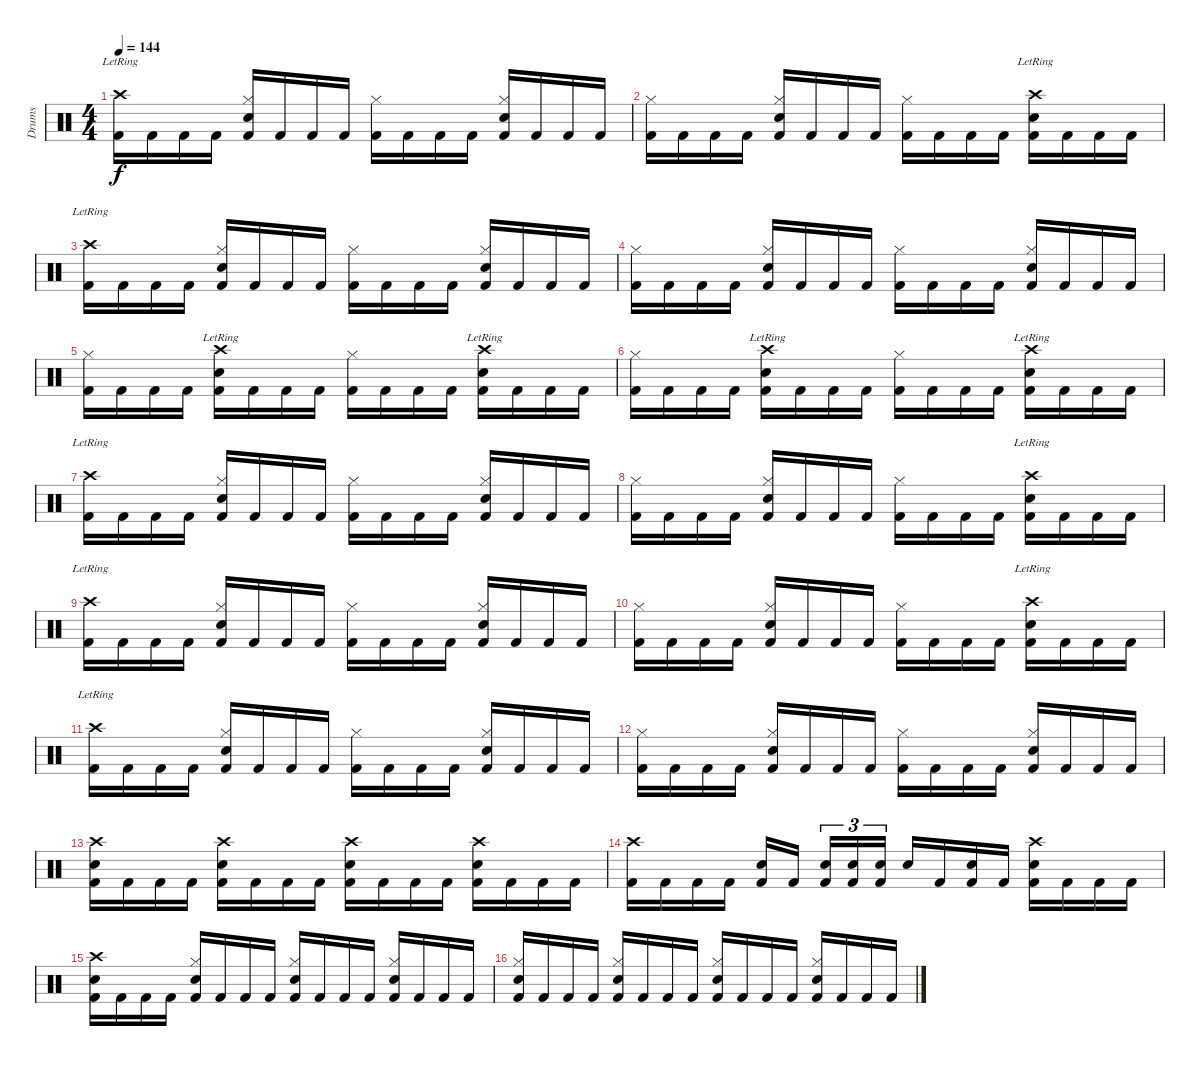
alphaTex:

\track ("Drums" "Drums") {instrument percussion}
\staff {score}
\articulation defaults
\ts (4 4)
\tempo 144
\clef neutral
\ks c
("Crash high (hit)"{lr} "Kick (hit) 2").16{dy f} "Kick (hit) 2".16 "Kick (hit) 2".16 "Kick (hit) 2".16 ("Hi-Hat (closed)" "Snare (hit) 2" "Kick (hit) 2").16 "Kick (hit) 2".16 "Kick (hit) 2".16 "Kick (hit) 2".16 ("Hi-Hat (closed)" "Kick (hit) 2").16 "Kick (hit) 2".16 "Kick (hit) 2".16 "Kick (hit) 2".16 ("Hi-Hat (closed)" "Snare (hit) 2" "Kick (hit) 2").16 "Kick (hit) 2".16 "Kick (hit) 2".16 "Kick (hit) 2".16 |
("Hi-Hat (closed)" "Kick (hit) 2").16 "Kick (hit) 2".16 "Kick (hit) 2".16 "Kick (hit) 2".16 ("Hi-Hat (closed)" "Snare (hit) 2" "Kick (hit) 2").16 "Kick (hit) 2".16 "Kick (hit) 2".16 "Kick (hit) 2".16 ("Hi-Hat (closed)" "Kick (hit) 2").16 "Kick (hit) 2".16 "Kick (hit) 2".16 "Kick (hit) 2".16 ("Crash high (hit)"{lr} "Snare (hit) 2" "Kick (hit) 2").16 "Kick (hit) 2".16 "Kick (hit) 2".16 "Kick (hit) 2".16 |
("Crash high (hit)"{lr} "Kick (hit) 2").16 "Kick (hit) 2".16 "Kick (hit) 2".16 "Kick (hit) 2".16 ("Hi-Hat (closed)" "Snare (hit) 2" "Kick (hit) 2").16 "Kick (hit) 2".16 "Kick (hit) 2".16 "Kick (hit) 2".16 ("Hi-Hat (closed)" "Kick (hit) 2").16 "Kick (hit) 2".16 "Kick (hit) 2".16 "Kick (hit) 2".16 ("Hi-Hat (closed)" "Snare (hit) 2" "Kick (hit) 2").16 "Kick (hit) 2".16 "Kick (hit) 2".16 "Kick (hit) 2".16 |
("Hi-Hat (closed)" "Kick (hit) 2").16 "Kick (hit) 2".16 "Kick (hit) 2".16 "Kick (hit) 2".16 ("Hi-Hat (closed)" "Snare (hit) 2" "Kick (hit) 2").16 "Kick (hit) 2".16 "Kick (hit) 2".16 "Kick (hit) 2".16 ("Hi-Hat (closed)" "Kick (hit) 2").16 "Kick (hit) 2".16 "Kick (hit) 2".16 "Kick (hit) 2".16 ("Hi-Hat (closed)" "Snare (hit) 2" "Kick (hit) 2").16 "Kick (hit) 2".16 "Kick (hit) 2".16 "Kick (hit) 2".16 |
("Hi-Hat (closed)" "Kick (hit) 2").16 "Kick (hit) 2".16 "Kick (hit) 2".16 "Kick (hit) 2".16 ("Crash high (hit)"{lr} "Snare (hit) 2" "Kick (hit) 2").16 "Kick (hit) 2".16 "Kick (hit) 2".16 "Kick (hit) 2".16 ("Hi-Hat (closed)" "Kick (hit) 2").16 "Kick (hit) 2".16 "Kick (hit) 2".16 "Kick (hit) 2".16 ("Crash high (hit)"{lr} "Snare (hit) 2" "Kick (hit) 2").16 "Kick (hit) 2".16 "Kick (hit) 2".16 "Kick (hit) 2".16 |
("Hi-Hat (closed)" "Kick (hit) 2").16 "Kick (hit) 2".16 "Kick (hit) 2".16 "Kick (hit) 2".16 ("Crash high (hit)"{lr} "Snare (hit) 2" "Kick (hit) 2").16 "Kick (hit) 2".16 "Kick (hit) 2".16 "Kick (hit) 2".16 ("Hi-Hat (closed)" "Kick (hit) 2").16 "Kick (hit) 2".16 "Kick (hit) 2".16 "Kick (hit) 2".16 ("Crash high (hit)"{lr} "Snare (hit) 2" "Kick (hit) 2").16 "Kick (hit) 2".16 "Kick (hit) 2".16 "Kick (hit) 2".16 |
("Crash high (hit)"{lr} "Kick (hit) 2").16 "Kick (hit) 2".16 "Kick (hit) 2".16 "Kick (hit) 2".16 ("Hi-Hat (closed)" "Snare (hit) 2" "Kick (hit) 2").16 "Kick (hit) 2".16 "Kick (hit) 2".16 "Kick (hit) 2".16 ("Hi-Hat (closed)" "Kick (hit) 2").16 "Kick (hit) 2".16 "Kick (hit) 2".16 "Kick (hit) 2".16 ("Hi-Hat (closed)" "Snare (hit) 2" "Kick (hit) 2").16 "Kick (hit) 2".16 "Kick (hit) 2".16 "Kick (hit) 2".16 |
("Hi-Hat (closed)" "Kick (hit) 2").16 "Kick (hit) 2".16 "Kick (hit) 2".16 "Kick (hit) 2".16 ("Hi-Hat (closed)" "Snare (hit) 2" "Kick (hit) 2").16 "Kick (hit) 2".16 "Kick (hit) 2".16 "Kick (hit) 2".16 ("Hi-Hat (closed)" "Kick (hit) 2").16 "Kick (hit) 2".16 "Kick (hit) 2".16 "Kick (hit) 2".16 ("Crash high (hit)"{lr} "Snare (hit) 2" "Kick (hit) 2").16 "Kick (hit) 2".16 "Kick (hit) 2".16 "Kick (hit) 2".16 |
("Crash high (hit)"{lr} "Kick (hit) 2").16 "Kick (hit) 2".16 "Kick (hit) 2".16 "Kick (hit) 2".16 ("Hi-Hat (closed)" "Snare (hit) 2" "Kick (hit) 2").16 "Kick (hit) 2".16 "Kick (hit) 2".16 "Kick (hit) 2".16 ("Hi-Hat (closed)" "Kick (hit) 2").16 "Kick (hit) 2".16 "Kick (hit) 2".16 "Kick (hit) 2".16 ("Hi-Hat (closed)" "Snare (hit) 2" "Kick (hit) 2").16 "Kick (hit) 2".16 "Kick (hit) 2".16 "Kick (hit) 2".16 |
("Hi-Hat (closed)" "Kick (hit) 2").16 "Kick (hit) 2".16 "Kick (hit) 2".16 "Kick (hit) 2".16 ("Hi-Hat (closed)" "Snare (hit) 2" "Kick (hit) 2").16 "Kick (hit) 2".16 "Kick (hit) 2".16 "Kick (hit) 2".16 ("Hi-Hat (closed)" "Kick (hit) 2").16 "Kick (hit) 2".16 "Kick (hit) 2".16 "Kick (hit) 2".16 ("Crash high (hit)"{lr} "Snare (hit) 2" "Kick (hit) 2").16 "Kick (hit) 2".16 "Kick (hit) 2".16 "Kick (hit) 2".16 |
("Crash high (hit)"{lr} "Kick (hit) 2").16 "Kick (hit) 2".16 "Kick (hit) 2".16 "Kick (hit) 2".16 ("Hi-Hat (closed)" "Snare (hit) 2" "Kick (hit) 2").16 "Kick (hit) 2".16 "Kick (hit) 2".16 "Kick (hit) 2".16 ("Hi-Hat (closed)" "Kick (hit) 2").16 "Kick (hit) 2".16 "Kick (hit) 2".16 "Kick (hit) 2".16 ("Hi-Hat (closed)" "Snare (hit) 2" "Kick (hit) 2").16 "Kick (hit) 2".16 "Kick (hit) 2".16 "Kick (hit) 2".16 |
("Hi-Hat (closed)" "Kick (hit) 2").16 "Kick (hit) 2".16 "Kick (hit) 2".16 "Kick (hit) 2".16 ("Hi-Hat (closed)" "Snare (hit) 2" "Kick (hit) 2").16 "Kick (hit) 2".16 "Kick (hit) 2".16 "Kick (hit) 2".16 ("Hi-Hat (closed)" "Kick (hit) 2").16 "Kick (hit) 2".16 "Kick (hit) 2".16 "Kick (hit) 2".16 ("Hi-Hat (closed)" "Snare (hit) 2" "Kick (hit) 2").16 "Kick (hit) 2".16 "Kick (hit) 2".16 "Kick (hit) 2".16 |
("Crash high (hit)" "Snare (hit) 2" "Kick (hit) 2").16 "Kick (hit) 2".16 "Kick (hit) 2".16 "Kick (hit) 2".16 ("Crash high (hit)" "Snare (hit) 2" "Kick (hit) 2").16 "Kick (hit) 2".16 "Kick (hit) 2".16 "Kick (hit) 2".16 ("Crash high (hit)" "Snare (hit) 2" "Kick (hit) 2").16 "Kick (hit) 2".16 "Kick (hit) 2".16 "Kick (hit) 2".16 ("Crash high (hit)" "Snare (hit) 2" "Kick (hit) 2").16 "Kick (hit) 2".16 "Kick (hit) 2".16 "Kick (hit) 2".16 |
("Crash high (hit)" "Kick (hit) 2").16 "Kick (hit) 2".16 "Kick (hit) 2".16 "Kick (hit) 2".16 ("Snare (hit) 2" "Kick (hit) 2").16 "Kick (hit) 2".16 ("Snare (hit) 2" "Kick (hit) 2").16{tu (3 2)} ("Snare (hit) 2" "Kick (hit) 2").16{tu (3 2)} ("Snare (hit) 2" "Kick (hit) 2").16{tu (3 2)} "Snare (hit) 2".16 "Kick (hit) 2".16 ("Snare (hit) 2" "Kick (hit) 2").16 "Kick (hit) 2".16 ("Crash high (hit)" "Snare (hit) 2" "Kick (hit) 2").16 "Kick (hit) 2".16 "Kick (hit) 2".16 "Kick (hit) 2".16 |
("Crash high (hit)" "Snare (hit) 2" "Kick (hit) 2").16 "Kick (hit) 2".16 "Kick (hit) 2".16 "Kick (hit) 2".16 ("Hi-Hat (closed)" "Snare (hit) 2" "Kick (hit) 2").16 "Kick (hit) 2".16 "Kick (hit) 2".16 "Kick (hit) 2".16 ("Hi-Hat (closed)" "Snare (hit) 2" "Kick (hit) 2").16 "Kick (hit) 2".16 "Kick (hit) 2".16 "Kick (hit) 2".16 ("Hi-Hat (closed)" "Snare (hit) 2" "Kick (hit) 2").16 "Kick (hit) 2".16 "Kick (hit) 2".16 "Kick (hit) 2".16 |
("Hi-Hat (closed)" "Snare (hit) 2" "Kick (hit) 2").16 "Kick (hit) 2".16 "Kick (hit) 2".16 "Kick (hit) 2".16 ("Hi-Hat (closed)" "Snare (hit) 2" "Kick (hit) 2").16 "Kick (hit) 2".16 "Kick (hit) 2".16 "Kick (hit) 2".16 ("Hi-Hat (closed)" "Snare (hit) 2" "Kick (hit) 2").16 "Kick (hit) 2".16 "Kick (hit) 2".16 "Kick (hit) 2".16 ("Hi-Hat (closed)" "Snare (hit) 2" "Kick (hit) 2").16 "Kick (hit) 2".16 "Kick (hit) 2".16 "Kick (hit) 2".16
